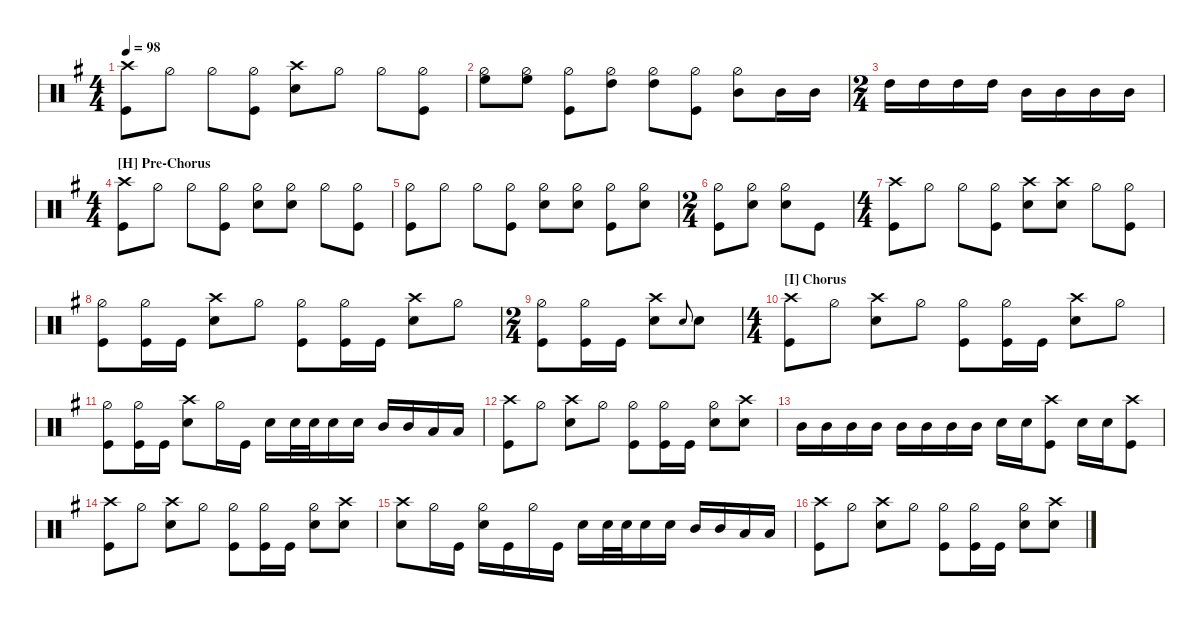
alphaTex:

\defaultSystemsLayout 4
\hideDynamics
\bracketExtendMode nobrackets
\otherSystemsTrackNameOrientation horizontal
\track ("Drums" " ") {instrument percussion}
\staff
\articulation defaults
\ts (4 4)
\beaming (8 2 2 2 2)
\tempo 98
\clef neutral
\ks eminor
("Kick (hit)"{acc forcenatural} "Crash high (hit)"{acc forcenatural}).8{dy f} "Hi-Hat (half)"{acc forcenatural}.8 "Hi-Hat (half)"{acc forcenatural}.8 ("Hi-Hat (half)"{acc forcenatural} "Kick (hit)"{acc forcenatural}).8 ("Snare (hit) 2"{acc forcenatural} "Crash high (hit)"{acc forcenatural}).8 "Hi-Hat (half)"{acc forcenatural}.8 "Hi-Hat (half)"{acc forcenatural}.8 ("Hi-Hat (half)"{acc forcenatural} "Kick (hit)"{acc forcenatural}).8 |
("Hi-Hat (half)"{acc forcenatural} "High Floor Tom (hit)"{acc forcenatural}).8{dy ff} ("Hi-Hat (half)"{acc forcenatural} "High Floor Tom (hit)"{acc forcenatural}).8 ("Hi-Hat (half)"{acc forcenatural} "Kick (hit)"{acc forcenatural}).8{dy f} ("Hi-Hat (half)"{acc forcenatural} "High Tom (hit)"{acc forcenatural}).8{dy ff} ("Hi-Hat (half)"{acc forcenatural} "High Tom (hit)"{acc forcenatural}).8 ("Hi-Hat (half)"{acc forcenatural} "Kick (hit)"{acc forcenatural}).8{dy f} ("Hi-Hat (half)"{acc forcenatural} "Mid Tom (hit)"{acc forcenatural}).8{dy ff} "Mid Tom (hit)"{acc forcenatural}.16 "Mid Tom (hit)"{acc forcenatural}.16 |
\ts (2 4)
\beaming (8 2 2)
"High Tom (hit)"{acc forcenatural}.16 "High Tom (hit)"{acc forcenatural}.16 "High Tom (hit)"{acc forcenatural}.16 "High Tom (hit)"{acc forcenatural}.16 "Mid Tom (hit)"{acc forcenatural}.16 "Mid Tom (hit)"{acc forcenatural}.16 "Mid Tom (hit)"{acc forcenatural}.16 "Mid Tom (hit)"{acc forcenatural}.16 |
\ts (4 4)
\beaming (8 2 2 2 2)
\section ("H" "Pre-Chorus")
("Kick (hit)"{acc forcenatural} "Crash high (hit)"{acc forcenatural}).8{dy f} "Hi-Hat (half)"{acc forcenatural}.8 "Hi-Hat (half)"{acc forcenatural}.8 ("Hi-Hat (half)"{acc forcenatural} "Kick (hit)"{acc forcenatural}).8 ("Snare (hit) 2"{acc forcenatural} "Hi-Hat (half)"{acc forcenatural}).8 ("Hi-Hat (half)"{acc forcenatural} "Snare (hit) 2"{acc forcenatural}).8 "Hi-Hat (half)"{acc forcenatural}.8 ("Hi-Hat (half)"{acc forcenatural} "Kick (hit)"{acc forcenatural}).8 |
("Hi-Hat (half)"{acc forcenatural} "Kick (hit)"{acc forcenatural}).8 "Hi-Hat (half)"{acc forcenatural}.8 "Hi-Hat (half)"{acc forcenatural}.8 ("Hi-Hat (half)"{acc forcenatural} "Kick (hit)"{acc forcenatural}).8 ("Hi-Hat (half)"{acc forcenatural} "Snare (hit) 2"{acc forcenatural}).8 ("Hi-Hat (half)"{acc forcenatural} "Snare (hit) 2"{acc forcenatural}).8 ("Hi-Hat (half)"{acc forcenatural} "Kick (hit)"{acc forcenatural}).8 ("Hi-Hat (half)"{acc forcenatural} "Snare (hit) 2"{acc forcenatural}).8 |
\ts (2 4)
\beaming (8 2 2)
("Hi-Hat (half)"{acc forcenatural} "Kick (hit)"{acc forcenatural}).8 ("Hi-Hat (half)"{acc forcenatural} "Snare (hit) 2"{acc forcenatural}).8 ("Snare (hit) 2"{acc forcenatural} "Hi-Hat (half)"{acc forcenatural}).8 "Kick (hit)"{acc forcenatural}.8 |
\ts (4 4)
\beaming (8 2 2 2 2)
("Kick (hit)"{acc forcenatural} "Crash high (hit)"{acc forcenatural}).8 "Hi-Hat (half)"{acc forcenatural}.8 "Hi-Hat (half)"{acc forcenatural}.8 ("Hi-Hat (half)"{acc forcenatural} "Kick (hit)"{acc forcenatural}).8 ("Snare (hit) 2"{acc forcenatural} "Crash high (hit)"{acc forcenatural}).8 ("Snare (hit) 2"{acc forcenatural} "Crash high (hit)"{acc forcenatural}).8 "Hi-Hat (half)"{acc forcenatural}.8 ("Hi-Hat (half)"{acc forcenatural} "Kick (hit)"{acc forcenatural}).8 |
("Hi-Hat (half)"{acc forcenatural} "Kick (hit)"{acc forcenatural}).8 ("Hi-Hat (half)"{acc forcenatural} "Kick (hit)"{acc forcenatural}).16 "Kick (hit)"{acc forcenatural}.16 ("Snare (hit) 2"{acc forcenatural} "Crash high (hit)"{acc forcenatural}).8 "Hi-Hat (half)"{acc forcenatural}.8 ("Hi-Hat (half)"{acc forcenatural} "Kick (hit)"{acc forcenatural}).8 ("Hi-Hat (half)"{acc forcenatural} "Kick (hit)"{acc forcenatural}).16 "Kick (hit)"{acc forcenatural}.16 ("Snare (hit) 2"{acc forcenatural} "Crash high (hit)"{acc forcenatural}).8 "Hi-Hat (half)"{acc forcenatural}.8 |
\ts (2 4)
\beaming (8 2 2)
("Hi-Hat (half)"{acc forcenatural} "Kick (hit)"{acc forcenatural}).8 ("Hi-Hat (half)"{acc forcenatural} "Kick (hit)"{acc forcenatural}).16 "Kick (hit)"{acc forcenatural}.16 ("Snare (hit) 2"{acc forcenatural} "Crash high (hit)"{acc forcenatural}).8 "Snare (hit) 2"{acc forcenatural}.8{gr onbeat} "Snare (hit) 2"{acc forcenatural}.8 |
\ts (4 4)
\beaming (8 2 2 2 2)
\section ("I" "Chorus")
("Kick (hit)"{acc forcenatural} "Crash high (hit)"{acc forcenatural}).8 "Hi-Hat (half)"{acc forcenatural}.8 ("Snare (hit) 2"{acc forcenatural} "Crash high (hit)"{acc forcenatural}).8 "Hi-Hat (half)"{acc forcenatural}.8 ("Hi-Hat (half)"{acc forcenatural} "Kick (hit)"{acc forcenatural}).8 ("Hi-Hat (half)"{acc forcenatural} "Kick (hit)"{acc forcenatural}).16 "Kick (hit)"{acc forcenatural}.16 ("Snare (hit) 2"{acc forcenatural} "Crash high (hit)"{acc forcenatural}).8 "Hi-Hat (half)"{acc forcenatural}.8 |
("Hi-Hat (half)"{acc forcenatural} "Kick (hit)"{acc forcenatural}).8 ("Hi-Hat (half)"{acc forcenatural} "Kick (hit)"{acc forcenatural}).16 "Kick (hit)"{acc forcenatural}.16 ("Snare (hit) 2"{acc forcenatural} "Crash high (hit)"{acc forcenatural}).8 "Hi-Hat (half)"{acc forcenatural}.16 "Kick (hit)"{acc forcenatural}.16 "Snare (hit) 2"{acc forcenatural}.16 "Snare (hit) 2"{acc forcenatural}.32 "Snare (hit) 2"{acc forcenatural}.32 "Snare (hit) 2"{acc forcenatural}.16 "Snare (hit) 2"{acc forcenatural}.16 "Mid Tom (hit)"{acc forcenatural}.16{dy fff} "Mid Tom (hit)"{acc forcenatural}.16 "Low Tom (hit)"{acc forcenatural}.16 "Low Tom (hit)"{acc forcenatural}.16 |
("Kick (hit)"{acc forcenatural} "Crash high (hit)"{acc forcenatural}).8{dy f} "Hi-Hat (half)"{acc forcenatural}.8 ("Snare (hit) 2"{acc forcenatural} "Crash high (hit)"{acc forcenatural}).8 "Hi-Hat (half)"{acc forcenatural}.8 ("Hi-Hat (half)"{acc forcenatural} "Kick (hit)"{acc forcenatural}).8 ("Hi-Hat (half)"{acc forcenatural} "Kick (hit)"{acc forcenatural}).16 "Kick (hit)"{acc forcenatural}.16 ("Snare (hit) 2"{acc forcenatural} "Hi-Hat (half)"{acc forcenatural}).8 ("Snare (hit) 2"{acc forcenatural} "Crash high (hit)"{acc forcenatural}).8 |
"Mid Tom (hit)"{acc forcenatural}.16{dy fff} "Mid Tom (hit)"{acc forcenatural}.16 "Mid Tom (hit)"{acc forcenatural}.16 "Mid Tom (hit)"{acc forcenatural}.16 "Mid Tom (hit)"{acc forcenatural}.16 "Mid Tom (hit)"{acc forcenatural}.16 "Mid Tom (hit)"{acc forcenatural}.16 "Mid Tom (hit)"{acc forcenatural}.16 "Snare (hit) 2"{acc forcenatural}.16{dy f} "Snare (hit) 2"{acc forcenatural}.16 ("Kick (hit)"{acc forcenatural} "Crash high (hit)"{acc forcenatural}).8 "Snare (hit) 2"{acc forcenatural}.16 "Snare (hit) 2"{acc forcenatural}.16 ("Kick (hit)"{acc forcenatural} "Crash high (hit)"{acc forcenatural}).8 |
("Kick (hit)"{acc forcenatural} "Crash high (hit)"{acc forcenatural}).8 "Hi-Hat (half)"{acc forcenatural}.8 ("Snare (hit) 2"{acc forcenatural} "Crash high (hit)"{acc forcenatural}).8 "Hi-Hat (half)"{acc forcenatural}.8 ("Hi-Hat (half)"{acc forcenatural} "Kick (hit)"{acc forcenatural}).8 ("Hi-Hat (half)"{acc forcenatural} "Kick (hit)"{acc forcenatural}).16 "Kick (hit)"{acc forcenatural}.16 ("Snare (hit) 2"{acc forcenatural} "Hi-Hat (half)"{acc forcenatural}).8 ("Snare (hit) 2"{acc forcenatural} "Crash high (hit)"{acc forcenatural}).8 |
("Snare (hit) 2"{acc forcenatural} "Crash high (hit)"{acc forcenatural}).8 "Hi-Hat (half)"{acc forcenatural}.16 "Kick (hit)"{acc forcenatural}.16 ("Snare (hit) 2"{acc forcenatural} "Hi-Hat (half)"{acc forcenatural}).16 "Kick (hit)"{acc forcenatural}.16 "Hi-Hat (half)"{acc forcenatural}.16 "Kick (hit)"{acc forcenatural}.16 "Snare (hit) 2"{acc forcenatural}.16 "Snare (hit) 2"{acc forcenatural}.32 "Snare (hit) 2"{acc forcenatural}.32 "Snare (hit) 2"{acc forcenatural}.16 "Snare (hit) 2"{acc forcenatural}.16 "Mid Tom (hit)"{acc forcenatural}.16{dy fff} "Mid Tom (hit)"{acc forcenatural}.16 "Low Tom (hit)"{acc forcenatural}.16 "Low Tom (hit)"{acc forcenatural}.16 |
("Kick (hit)"{acc forcenatural} "Crash high (hit)"{acc forcenatural}).8{dy f} "Hi-Hat (half)"{acc forcenatural}.8 ("Snare (hit) 2"{acc forcenatural} "Crash high (hit)"{acc forcenatural}).8 "Hi-Hat (half)"{acc forcenatural}.8 ("Hi-Hat (half)"{acc forcenatural} "Kick (hit)"{acc forcenatural}).8 ("Hi-Hat (half)"{acc forcenatural} "Kick (hit)"{acc forcenatural}).16 "Kick (hit)"{acc forcenatural}.16 ("Snare (hit) 2"{acc forcenatural} "Hi-Hat (half)"{acc forcenatural}).8 ("Snare (hit) 2"{acc forcenatural} "Crash high (hit)"{acc forcenatural}).8
